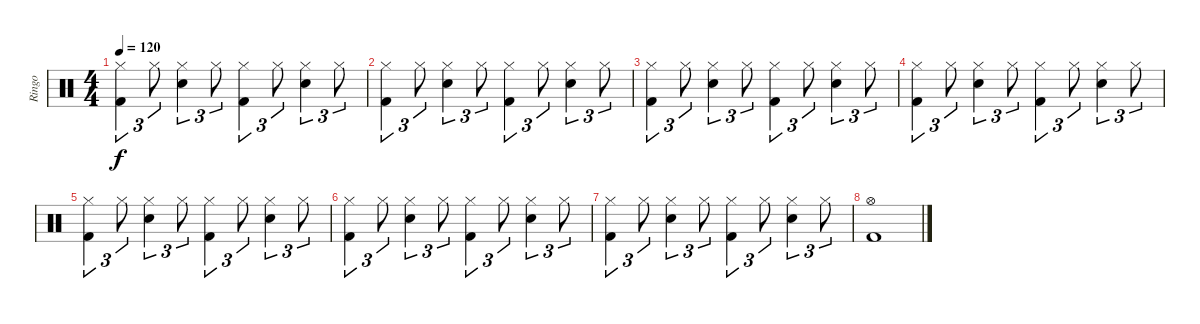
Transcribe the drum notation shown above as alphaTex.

\track ("Ringo" "Ringo") {instrument percussion}
\staff {score}
\articulation defaults
\ts (4 4)
\tempo 120
\clef neutral
\ks c
("Hi-Hat (closed)" "Kick (hit) 2").4{tu (3 2) dy f} "Hi-Hat (closed)".8{tu (3 2)} ("Hi-Hat (closed)" "Snare (hit) 2").4{tu (3 2)} "Hi-Hat (closed)".8{tu (3 2)} ("Hi-Hat (closed)" "Kick (hit) 2").4{tu (3 2)} "Hi-Hat (closed)".8{tu (3 2)} ("Hi-Hat (closed)" "Snare (hit) 2").4{tu (3 2)} "Hi-Hat (closed)".8{tu (3 2)} |
("Hi-Hat (closed)" "Kick (hit) 2").4{tu (3 2)} "Hi-Hat (closed)".8{tu (3 2)} ("Hi-Hat (closed)" "Snare (hit) 2").4{tu (3 2)} "Hi-Hat (closed)".8{tu (3 2)} ("Hi-Hat (closed)" "Kick (hit) 2").4{tu (3 2)} "Hi-Hat (closed)".8{tu (3 2)} ("Hi-Hat (closed)" "Snare (hit) 2").4{tu (3 2)} "Hi-Hat (closed)".8{tu (3 2)} |
("Hi-Hat (closed)" "Kick (hit) 2").4{tu (3 2)} "Hi-Hat (closed)".8{tu (3 2)} ("Hi-Hat (closed)" "Snare (hit) 2").4{tu (3 2)} "Hi-Hat (closed)".8{tu (3 2)} ("Hi-Hat (closed)" "Kick (hit) 2").4{tu (3 2)} "Hi-Hat (closed)".8{tu (3 2)} ("Hi-Hat (closed)" "Snare (hit) 2").4{tu (3 2)} "Hi-Hat (closed)".8{tu (3 2)} |
("Hi-Hat (closed)" "Kick (hit) 2").4{tu (3 2)} "Hi-Hat (closed)".8{tu (3 2)} ("Hi-Hat (closed)" "Snare (hit) 2").4{tu (3 2)} "Hi-Hat (closed)".8{tu (3 2)} ("Hi-Hat (closed)" "Kick (hit) 2").4{tu (3 2)} "Hi-Hat (closed)".8{tu (3 2)} ("Hi-Hat (closed)" "Snare (hit) 2").4{tu (3 2)} "Hi-Hat (closed)".8{tu (3 2)} |
("Hi-Hat (closed)" "Kick (hit) 2").4{tu (3 2)} "Hi-Hat (closed)".8{tu (3 2)} ("Hi-Hat (closed)" "Snare (hit) 2").4{tu (3 2)} "Hi-Hat (closed)".8{tu (3 2)} ("Hi-Hat (closed)" "Kick (hit) 2").4{tu (3 2)} "Hi-Hat (closed)".8{tu (3 2)} ("Hi-Hat (closed)" "Snare (hit) 2").4{tu (3 2)} "Hi-Hat (closed)".8{tu (3 2)} |
("Hi-Hat (closed)" "Kick (hit) 2").4{tu (3 2)} "Hi-Hat (closed)".8{tu (3 2)} ("Hi-Hat (closed)" "Snare (hit) 2").4{tu (3 2)} "Hi-Hat (closed)".8{tu (3 2)} ("Hi-Hat (closed)" "Kick (hit) 2").4{tu (3 2)} "Hi-Hat (closed)".8{tu (3 2)} ("Hi-Hat (closed)" "Snare (hit) 2").4{tu (3 2)} "Hi-Hat (closed)".8{tu (3 2)} |
("Hi-Hat (closed)" "Kick (hit) 2").4{tu (3 2)} "Hi-Hat (closed)".8{tu (3 2)} ("Hi-Hat (closed)" "Snare (hit) 2").4{tu (3 2)} "Hi-Hat (closed)".8{tu (3 2)} ("Hi-Hat (closed)" "Kick (hit) 2").4{tu (3 2)} "Hi-Hat (closed)".8{tu (3 2)} ("Hi-Hat (closed)" "Snare (hit) 2").4{tu (3 2)} "Hi-Hat (closed)".8{tu (3 2)} |
("Hi-Hat (open)" "Kick (hit) 2").1
